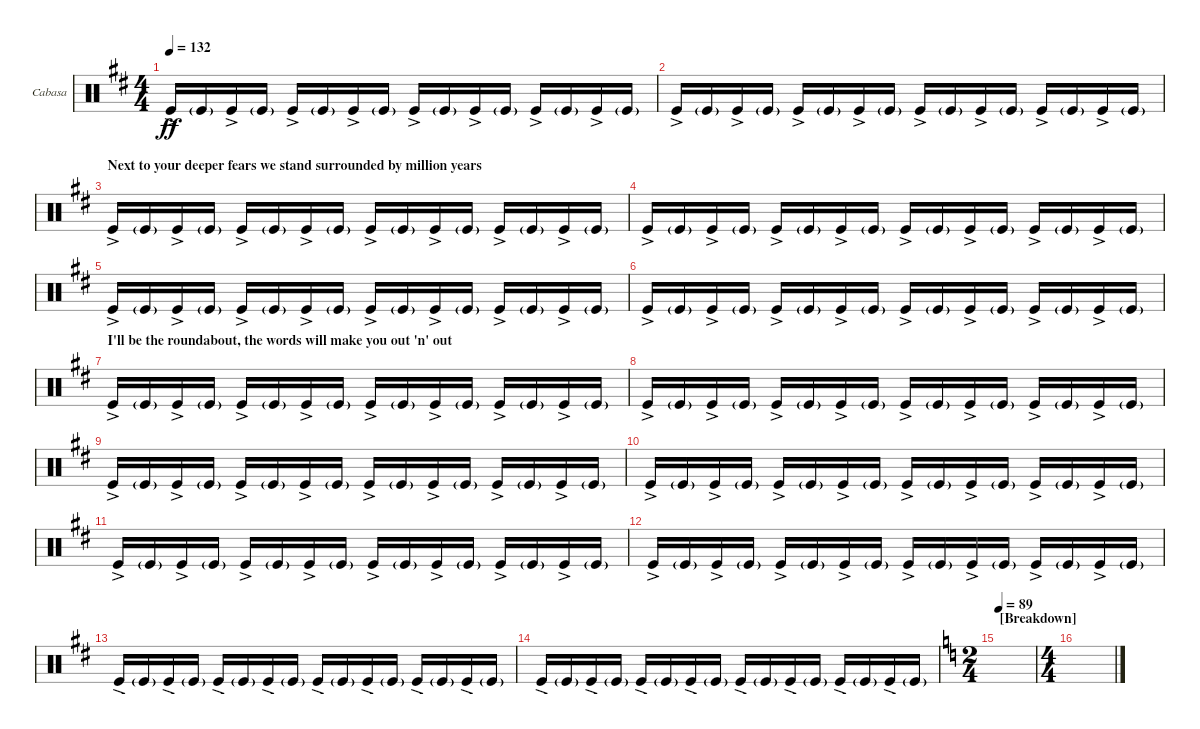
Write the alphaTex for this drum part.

\bracketExtendMode groupsimilarinstruments
\firstSystemTrackNameOrientation horizontal
\otherSystemsTrackNameOrientation horizontal
\track ("Cabasa" "Cabasa") {instrument percussion}
\staff {score}
\articulation defaults
\ts (4 4)
\tempo 132
\clef neutral
\ks bminor "Kick (hit)"{ac}.16{dy ff} "Kick (hit)"{g}.16 "Kick (hit)"{ac}.16 "Kick (hit)"{g}.16 "Kick (hit)"{ac}.16 "Kick (hit)"{g}.16 "Kick (hit)"{ac}.16 "Kick (hit)"{g}.16 "Kick (hit)"{ac}.16 "Kick (hit)"{g}.16 "Kick (hit)"{ac}.16 "Kick (hit)"{g}.16 "Kick (hit)"{ac}.16 "Kick (hit)"{g}.16 "Kick (hit)"{ac}.16 "Kick (hit)"{g}.16
|
"Kick (hit)"{ac}.16 "Kick (hit)"{g}.16 "Kick (hit)"{ac}.16 "Kick (hit)"{g}.16 "Kick (hit)"{ac}.16 "Kick (hit)"{g}.16 "Kick (hit)"{ac}.16 "Kick (hit)"{g}.16 "Kick (hit)"{ac}.16 "Kick (hit)"{g}.16 "Kick (hit)"{ac}.16 "Kick (hit)"{g}.16 "Kick (hit)"{ac}.16 "Kick (hit)"{g}.16 "Kick (hit)"{ac}.16 "Kick (hit)"{g}.16 |
\section ("" "Next to your deeper fears we stand surrounded by million years")
"Kick (hit)"{ac}.16 "Kick (hit)"{g}.16 "Kick (hit)"{ac}.16 "Kick (hit)"{g}.16 "Kick (hit)"{ac}.16 "Kick (hit)"{g}.16 "Kick (hit)"{ac}.16 "Kick (hit)"{g}.16 "Kick (hit)"{ac}.16 "Kick (hit)"{g}.16 "Kick (hit)"{ac}.16 "Kick (hit)"{g}.16 "Kick (hit)"{ac}.16 "Kick (hit)"{g}.16 "Kick (hit)"{ac}.16 "Kick (hit)"{g}.16 |
"Kick (hit)"{ac}.16 "Kick (hit)"{g}.16 "Kick (hit)"{ac}.16 "Kick (hit)"{g}.16 "Kick (hit)"{ac}.16 "Kick (hit)"{g}.16 "Kick (hit)"{ac}.16 "Kick (hit)"{g}.16 "Kick (hit)"{ac}.16 "Kick (hit)"{g}.16 "Kick (hit)"{ac}.16 "Kick (hit)"{g}.16 "Kick (hit)"{ac}.16 "Kick (hit)"{g}.16 "Kick (hit)"{ac}.16 "Kick (hit)"{g}.16 |
"Kick (hit)"{ac}.16 "Kick (hit)"{g}.16 "Kick (hit)"{ac}.16 "Kick (hit)"{g}.16 "Kick (hit)"{ac}.16 "Kick (hit)"{g}.16 "Kick (hit)"{ac}.16 "Kick (hit)"{g}.16 "Kick (hit)"{ac}.16 "Kick (hit)"{g}.16 "Kick (hit)"{ac}.16 "Kick (hit)"{g}.16 "Kick (hit)"{ac}.16 "Kick (hit)"{g}.16 "Kick (hit)"{ac}.16 "Kick (hit)"{g}.16 |
"Kick (hit)"{ac}.16 "Kick (hit)"{g}.16 "Kick (hit)"{ac}.16 "Kick (hit)"{g}.16 "Kick (hit)"{ac}.16 "Kick (hit)"{g}.16 "Kick (hit)"{ac}.16 "Kick (hit)"{g}.16 "Kick (hit)"{ac}.16 "Kick (hit)"{g}.16 "Kick (hit)"{ac}.16 "Kick (hit)"{g}.16 "Kick (hit)"{ac}.16 "Kick (hit)"{g}.16 "Kick (hit)"{ac}.16 "Kick (hit)"{g}.16 |
\section ("" "I'll be the roundabout, the words will make you out 'n' out")
"Kick (hit)"{ac}.16 "Kick (hit)"{g}.16 "Kick (hit)"{ac}.16 "Kick (hit)"{g}.16 "Kick (hit)"{ac}.16 "Kick (hit)"{g}.16 "Kick (hit)"{ac}.16 "Kick (hit)"{g}.16 "Kick (hit)"{ac}.16 "Kick (hit)"{g}.16 "Kick (hit)"{ac}.16 "Kick (hit)"{g}.16 "Kick (hit)"{ac}.16 "Kick (hit)"{g}.16 "Kick (hit)"{ac}.16 "Kick (hit)"{g}.16 |
"Kick (hit)"{ac}.16 "Kick (hit)"{g}.16 "Kick (hit)"{ac}.16 "Kick (hit)"{g}.16 "Kick (hit)"{ac}.16 "Kick (hit)"{g}.16 "Kick (hit)"{ac}.16 "Kick (hit)"{g}.16 "Kick (hit)"{ac}.16 "Kick (hit)"{g}.16 "Kick (hit)"{ac}.16 "Kick (hit)"{g}.16 "Kick (hit)"{ac}.16 "Kick (hit)"{g}.16 "Kick (hit)"{ac}.16 "Kick (hit)"{g}.16 |
"Kick (hit)"{ac}.16 "Kick (hit)"{g}.16 "Kick (hit)"{ac}.16 "Kick (hit)"{g}.16 "Kick (hit)"{ac}.16 "Kick (hit)"{g}.16 "Kick (hit)"{ac}.16 "Kick (hit)"{g}.16 "Kick (hit)"{ac}.16 "Kick (hit)"{g}.16 "Kick (hit)"{ac}.16 "Kick (hit)"{g}.16 "Kick (hit)"{ac}.16 "Kick (hit)"{g}.16 "Kick (hit)"{ac}.16 "Kick (hit)"{g}.16 |
"Kick (hit)"{ac}.16 "Kick (hit)"{g}.16 "Kick (hit)"{ac}.16 "Kick (hit)"{g}.16 "Kick (hit)"{ac}.16 "Kick (hit)"{g}.16 "Kick (hit)"{ac}.16 "Kick (hit)"{g}.16 "Kick (hit)"{ac}.16 "Kick (hit)"{g}.16 "Kick (hit)"{ac}.16 "Kick (hit)"{g}.16 "Kick (hit)"{ac}.16 "Kick (hit)"{g}.16 "Kick (hit)"{ac}.16 "Kick (hit)"{g}.16 |
"Kick (hit)"{ac}.16 "Kick (hit)"{g}.16 "Kick (hit)"{ac}.16 "Kick (hit)"{g}.16 "Kick (hit)"{ac}.16 "Kick (hit)"{g}.16 "Kick (hit)"{ac}.16 "Kick (hit)"{g}.16 "Kick (hit)"{ac}.16 "Kick (hit)"{g}.16 "Kick (hit)"{ac}.16 "Kick (hit)"{g}.16 "Kick (hit)"{ac}.16 "Kick (hit)"{g}.16 "Kick (hit)"{ac}.16 "Kick (hit)"{g}.16 |
"Kick (hit)"{ac}.16 "Kick (hit)"{g}.16 "Kick (hit)"{ac}.16 "Kick (hit)"{g}.16 "Kick (hit)"{ac}.16 "Kick (hit)"{g}.16 "Kick (hit)"{ac}.16 "Kick (hit)"{g}.16 "Kick (hit)"{ac}.16 "Kick (hit)"{g}.16 "Kick (hit)"{ac}.16 "Kick (hit)"{g}.16 "Kick (hit)"{ac}.16 "Kick (hit)"{g}.16 "Kick (hit)"{ac}.16 "Kick (hit)"{g}.16 |
"Kick (hit)"{ac}.16 "Kick (hit)"{g}.16 "Kick (hit)"{ac}.16 "Kick (hit)"{g}.16 "Kick (hit)"{ac}.16 "Kick (hit)"{g}.16 "Kick (hit)"{ac}.16 "Kick (hit)"{g}.16 "Kick (hit)"{ac}.16 "Kick (hit)"{g}.16 "Kick (hit)"{ac}.16 "Kick (hit)"{g}.16 "Kick (hit)"{ac}.16 "Kick (hit)"{g}.16 "Kick (hit)"{ac}.16 "Kick (hit)"{g}.16 |
"Kick (hit)"{ac}.16 "Kick (hit)"{g}.16 "Kick (hit)"{ac}.16 "Kick (hit)"{g}.16 "Kick (hit)"{ac}.16 "Kick (hit)"{g}.16 "Kick (hit)"{ac}.16 "Kick (hit)"{g}.16 "Kick (hit)"{ac}.16 "Kick (hit)"{g}.16 "Kick (hit)"{ac}.16 "Kick (hit)"{g}.16 "Kick (hit)"{ac}.16 "Kick (hit)"{g}.16 "Kick (hit)"{ac}.16 "Kick (hit)"{g}.16 |
\ts (2 4)
\section ("" "[Breakdown]")
\tempo (89 0.00625)
\ks aminor
|
\ts (4 4)
